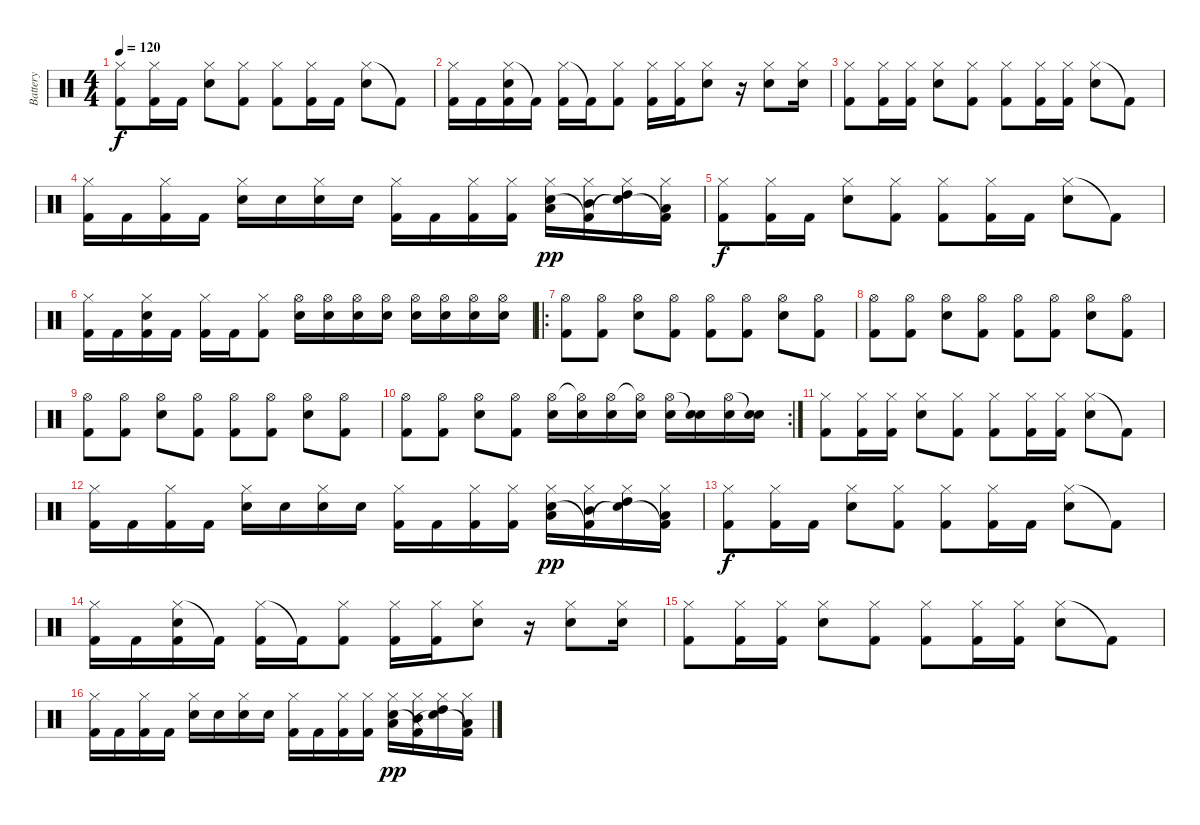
\track ("Battery" "Battery") {instrument percussion}
\staff {score}
\articulation defaults
\ts (4 4)
\tempo 120
\clef neutral
\ks c
("Hi-Hat (closed)" "Kick (hit) 2").8{dy f} ("Hi-Hat (closed)" "Kick (hit) 2").16 "Kick (hit) 2".16 ("Hi-Hat (closed)" "Electric Snare (hit)").8 ("Hi-Hat (closed)" "Kick (hit) 2").8 ("Hi-Hat (closed)" "Kick (hit) 2").8 ("Hi-Hat (closed)" "Kick (hit) 2").16 "Kick (hit) 2".16 ("Hi-Hat (closed)" "Electric Snare (hit)").8 "Kick (hit) 2"{t}.8 |
("Hi-Hat (closed)" "Kick (hit) 2").16 "Kick (hit) 2".16 ("Hi-Hat (closed)" "Electric Snare (hit)" "Kick (hit) 2").16 "Kick (hit) 2"{t}.16 ("Hi-Hat (closed)" "Kick (hit) 2").16 "Kick (hit) 2"{t}.16 ("Hi-Hat (closed)" "Kick (hit) 2").8 ("Hi-Hat (closed)" "Kick (hit) 2").16 ("Hi-Hat (closed)" "Kick (hit) 2").16 ("Hi-Hat (closed)" "Electric Snare (hit)").8 r.16 ("Hi-Hat (closed)" "Electric Snare (hit)").8 ("Hi-Hat (closed)" "Electric Snare (hit)").16 |
("Hi-Hat (closed)" "Kick (hit) 2").8 ("Hi-Hat (closed)" "Kick (hit) 2").16 ("Hi-Hat (closed)" "Kick (hit) 2").16 ("Hi-Hat (closed)" "Electric Snare (hit)").8 ("Hi-Hat (closed)" "Kick (hit) 2").8 ("Hi-Hat (closed)" "Kick (hit) 2").8 ("Hi-Hat (closed)" "Kick (hit) 2").16 ("Hi-Hat (closed)" "Kick (hit) 2").16 ("Hi-Hat (closed)" "Electric Snare (hit)").8 "Kick (hit) 2"{t}.8 |
("Hi-Hat (closed)" "Kick (hit) 2").16 "Kick (hit) 2".16 ("Hi-Hat (closed)" "Kick (hit) 2").16 "Kick (hit) 2".16 ("Hi-Hat (closed)" "Electric Snare (hit)").16 "Electric Snare (hit)".16 ("Hi-Hat (closed)" "Electric Snare (hit)").16 "Electric Snare (hit)".16 ("Hi-Hat (closed)" "Kick (hit) 2").16 "Kick (hit) 2".16 ("Hi-Hat (closed)" "Kick (hit) 2").16 ("Hi-Hat (closed)" "Kick (hit) 2").16 ("Hi-Hat (closed)" "Low Tom (hit)" "Electric Snare (hit)").16{dy pp} ("Hi-Hat (closed)" "Mid Tom (hit)" "Kick (hit) 2"{t}).16 ("Hi-Hat (closed)" "High Tom (hit)" "Snare (hit)"{t}).16 ("Hi-Hat (closed)" "Low Tom (hit)" "Kick (hit) 2"{t}).16 |
("Hi-Hat (closed)" "Kick (hit) 2").8{dy f} ("Hi-Hat (closed)" "Kick (hit) 2").16 "Kick (hit) 2".16 ("Hi-Hat (closed)" "Electric Snare (hit)").8 ("Hi-Hat (closed)" "Kick (hit) 2").8 ("Hi-Hat (closed)" "Kick (hit) 2").8 ("Hi-Hat (closed)" "Kick (hit) 2").16 "Kick (hit) 2".16 ("Hi-Hat (closed)" "Electric Snare (hit)").8 "Kick (hit) 2"{t}.8 |
("Hi-Hat (closed)" "Kick (hit) 2").16 "Kick (hit) 2".16 ("Hi-Hat (closed)" "Electric Snare (hit)" "Kick (hit) 2").16 "Kick (hit) 2".16 ("Hi-Hat (closed)" "Kick (hit) 2").16 "Kick (hit) 2".16 ("Hi-Hat (closed)" "Kick (hit) 2").8 ("Hi-Hat (open)" "Electric Snare (hit)").16 ("Hi-Hat (open)" "Electric Snare (hit)").16 ("Hi-Hat (open)" "Electric Snare (hit)").16 ("Hi-Hat (open)" "Electric Snare (hit)").16 ("Hi-Hat (open)" "Electric Snare (hit)").16 ("Hi-Hat (open)" "Electric Snare (hit)").16 ("Hi-Hat (open)" "Electric Snare (hit)").16 ("Hi-Hat (open)" "Electric Snare (hit)").16 |
\ro
("Hi-Hat (open)" "Kick (hit) 2").8 ("Hi-Hat (open)" "Kick (hit) 2").8 ("Hi-Hat (open)" "Electric Snare (hit)").8 ("Hi-Hat (open)" "Kick (hit) 2").8 ("Hi-Hat (open)" "Kick (hit) 2").8 ("Hi-Hat (open)" "Kick (hit) 2").8 ("Hi-Hat (open)" "Electric Snare (hit)").8 ("Hi-Hat (open)" "Kick (hit) 2").8 |
("Hi-Hat (open)" "Kick (hit) 2").8 ("Hi-Hat (open)" "Kick (hit) 2").8 ("Hi-Hat (open)" "Electric Snare (hit)").8 ("Hi-Hat (open)" "Kick (hit) 2").8 ("Hi-Hat (open)" "Kick (hit) 2").8 ("Hi-Hat (open)" "Kick (hit) 2").8 ("Hi-Hat (open)" "Electric Snare (hit)").8 ("Hi-Hat (open)" "Kick (hit) 2").8 |
("Hi-Hat (open)" "Kick (hit) 2").8 ("Hi-Hat (open)" "Kick (hit) 2").8 ("Hi-Hat (open)" "Electric Snare (hit)").8 ("Hi-Hat (open)" "Kick (hit) 2").8 ("Hi-Hat (open)" "Kick (hit) 2").8 ("Hi-Hat (open)" "Kick (hit) 2").8 ("Hi-Hat (open)" "Electric Snare (hit)").8 ("Hi-Hat (open)" "Kick (hit) 2").8 |
\rc 2
("Hi-Hat (open)" "Kick (hit) 2").8 ("Hi-Hat (open)" "Kick (hit) 2").8 ("Hi-Hat (open)" "Electric Snare (hit)").8 ("Hi-Hat (open)" "Kick (hit) 2").8 ("Hi-Hat (open)" "Electric Snare (hit)").16 ("Hi-Hat (open)"{t} "Electric Snare (hit)").16 ("Hi-Hat (open)" "Electric Snare (hit)").16 ("Hi-Hat (open)"{t} "Electric Snare (hit)").16 ("Hi-Hat (open)" "Electric Snare (hit)").16 ("Snare (hit)"{t} "Electric Snare (hit)").16 ("Hi-Hat (open)" "Electric Snare (hit)").16 ("Snare (hit)"{t} "Electric Snare (hit)").16 |
("Hi-Hat (closed)" "Kick (hit) 2").8 ("Hi-Hat (closed)" "Kick (hit) 2").16 ("Hi-Hat (closed)" "Kick (hit) 2").16 ("Hi-Hat (closed)" "Electric Snare (hit)").8 ("Hi-Hat (closed)" "Kick (hit) 2").8 ("Hi-Hat (closed)" "Kick (hit) 2").8 ("Hi-Hat (closed)" "Kick (hit) 2").16 ("Hi-Hat (closed)" "Kick (hit) 2").16 ("Hi-Hat (closed)" "Electric Snare (hit)").8 "Kick (hit) 2"{t}.8 |
("Hi-Hat (closed)" "Kick (hit) 2").16 "Kick (hit) 2".16 ("Hi-Hat (closed)" "Kick (hit) 2").16 "Kick (hit) 2".16 ("Hi-Hat (closed)" "Electric Snare (hit)").16 "Electric Snare (hit)".16 ("Hi-Hat (closed)" "Electric Snare (hit)").16 "Electric Snare (hit)".16 ("Hi-Hat (closed)" "Kick (hit) 2").16 "Kick (hit) 2".16 ("Hi-Hat (closed)" "Kick (hit) 2").16 ("Hi-Hat (closed)" "Kick (hit) 2").16 ("Hi-Hat (closed)" "Low Tom (hit)" "Electric Snare (hit)").16{dy pp} ("Hi-Hat (closed)" "Mid Tom (hit)" "Kick (hit) 2"{t}).16 ("Hi-Hat (closed)" "High Tom (hit)" "Snare (hit)"{t}).16 ("Hi-Hat (closed)" "Low Tom (hit)" "Kick (hit) 2"{t}).16 |
("Hi-Hat (closed)" "Kick (hit) 2").8{dy f} ("Hi-Hat (closed)" "Kick (hit) 2").16 "Kick (hit) 2".16 ("Hi-Hat (closed)" "Electric Snare (hit)").8 ("Hi-Hat (closed)" "Kick (hit) 2").8 ("Hi-Hat (closed)" "Kick (hit) 2").8 ("Hi-Hat (closed)" "Kick (hit) 2").16 "Kick (hit) 2".16 ("Hi-Hat (closed)" "Electric Snare (hit)").8 "Kick (hit) 2"{t}.8 |
("Hi-Hat (closed)" "Kick (hit) 2").16 "Kick (hit) 2".16 ("Hi-Hat (closed)" "Electric Snare (hit)" "Kick (hit) 2").16 "Kick (hit) 2"{t}.16 ("Hi-Hat (closed)" "Kick (hit) 2").16 "Kick (hit) 2"{t}.16 ("Hi-Hat (closed)" "Kick (hit) 2").8 ("Hi-Hat (closed)" "Kick (hit) 2").16 ("Hi-Hat (closed)" "Kick (hit) 2").16 ("Hi-Hat (closed)" "Electric Snare (hit)").8 r.16 ("Hi-Hat (closed)" "Electric Snare (hit)").8 ("Hi-Hat (closed)" "Electric Snare (hit)").16 |
("Hi-Hat (closed)" "Kick (hit) 2").8 ("Hi-Hat (closed)" "Kick (hit) 2").16 ("Hi-Hat (closed)" "Kick (hit) 2").16 ("Hi-Hat (closed)" "Electric Snare (hit)").8 ("Hi-Hat (closed)" "Kick (hit) 2").8 ("Hi-Hat (closed)" "Kick (hit) 2").8 ("Hi-Hat (closed)" "Kick (hit) 2").16 ("Hi-Hat (closed)" "Kick (hit) 2").16 ("Hi-Hat (closed)" "Electric Snare (hit)").8 "Kick (hit) 2"{t}.8 |
("Hi-Hat (closed)" "Kick (hit) 2").16 "Kick (hit) 2".16 ("Hi-Hat (closed)" "Kick (hit) 2").16 "Kick (hit) 2".16 ("Hi-Hat (closed)" "Electric Snare (hit)").16 "Electric Snare (hit)".16 ("Hi-Hat (closed)" "Electric Snare (hit)").16 "Electric Snare (hit)".16 ("Hi-Hat (closed)" "Kick (hit) 2").16 "Kick (hit) 2".16 ("Hi-Hat (closed)" "Kick (hit) 2").16 ("Hi-Hat (closed)" "Kick (hit) 2").16 ("Hi-Hat (closed)" "Low Tom (hit)" "Electric Snare (hit)").16{dy pp} ("Hi-Hat (closed)" "Mid Tom (hit)" "Kick (hit) 2"{t}).16 ("Hi-Hat (closed)" "High Tom (hit)" "Snare (hit)"{t}).16 ("Hi-Hat (closed)" "Low Tom (hit)" "Kick (hit) 2"{t}).16
